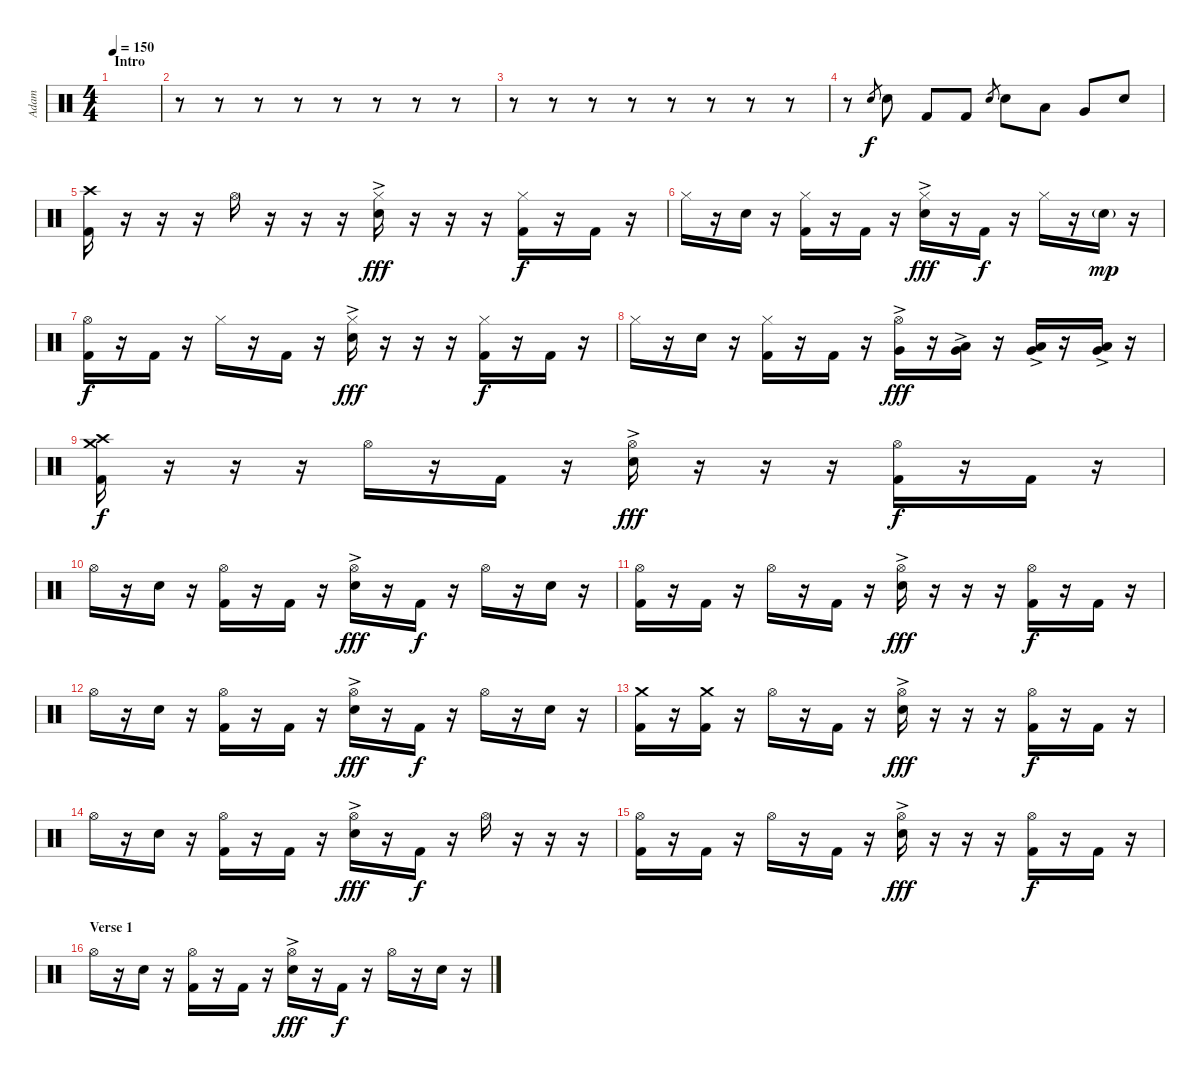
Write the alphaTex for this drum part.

\track ("Adam" "Adam") {instrument percussion}
\staff {score}
\articulation defaults
\ts (4 4)
\section ("" "Intro")
\tempo 150
\clef neutral
\ks c
|
r.8 r.8 r.8 r.8 r.8 r.8 r.8 r.8 |
r.8 r.8 r.8 r.8 r.8 r.8 r.8 r.8 |
r.8 "Electric Snare (hit)".8{gr} "Electric Snare (hit)".8 "Kick (hit) 2".8 "Kick (hit) 2".8 "Electric Snare (hit)".8{gr} "Electric Snare (hit)".8 "Low Tom (hit)".8 "Very Low Tom (hit)".8 "Electric Snare (hit)".8 |
("Crash high (hit)" "Kick (hit) 2").16 r.16 r.16 r.16 "Hi-Hat (open)".16 r.16 r.16 r.16 ("Hi-Hat (closed)" "Electric Snare (hit)"{ac}).16{dy fff} r.16 r.16 r.16 ("Hi-Hat (closed)" "Kick (hit) 2").16{dy f} r.16 "Kick (hit) 2".16 r.16 |
"Hi-Hat (closed)".16 r.16 "Electric Snare (hit)".16 r.16 ("Hi-Hat (closed)" "Kick (hit) 2").16 r.16 "Kick (hit) 2".16 r.16 ("Hi-Hat (closed)" "Electric Snare (hit)"{ac}).16{dy fff} r.16 "Kick (hit) 2".16{dy f} r.16 "Hi-Hat (closed)".16 r.16 "Electric Snare (hit)"{g}.16{dy mp} r.16 |
("Hi-Hat (open)" "Kick (hit) 2").16{dy f} r.16 "Kick (hit) 2".16 r.16 "Hi-Hat (closed)".16 r.16 "Kick (hit) 2".16 r.16 ("Hi-Hat (closed)" "Electric Snare (hit)"{ac}).16{dy fff} r.16 r.16 r.16 ("Hi-Hat (closed)" "Kick (hit) 2").16{dy f} r.16 "Kick (hit) 2".16 r.16 |
"Hi-Hat (closed)".16 r.16 "Electric Snare (hit)".16 r.16 ("Hi-Hat (closed)" "Kick (hit) 2").16 r.16 "Kick (hit) 2".16 r.16 ("Hi-Hat (open)" "Very Low Tom (hit)"{ac}).16{dy fff} r.16 ("Very Low Tom (hit)"{ac} "Low Tom (hit)").16 r.16 ("Very Low Tom (hit)"{ac} "Low Tom (hit)").16 r.16 ("Very Low Tom (hit)"{ac} "Low Tom (hit)").16 r.16 |
("Crash high (hit)" "Crash medium (hit)" "Kick (hit) 2").16{dy f} r.16 r.16 r.16 "Hi-Hat (open)".16 r.16 "Kick (hit) 2".16 r.16 ("Hi-Hat (open)" "Electric Snare (hit)"{ac}).16{dy fff} r.16 r.16 r.16 ("Hi-Hat (open)" "Kick (hit) 2").16{dy f} r.16 "Kick (hit) 2".16 r.16 |
"Hi-Hat (open)".16 r.16 "Electric Snare (hit)".16 r.16 ("Hi-Hat (open)" "Kick (hit) 2").16 r.16 "Kick (hit) 2".16 r.16 ("Hi-Hat (open)" "Electric Snare (hit)"{ac}).16{dy fff} r.16 "Kick (hit) 2".16{dy f} r.16 "Hi-Hat (open)".16 r.16 "Electric Snare (hit)".16 r.16 |
("Hi-Hat (open)" "Kick (hit) 2").16 r.16 "Kick (hit) 2".16 r.16 "Hi-Hat (open)".16 r.16 "Kick (hit) 2".16 r.16 ("Hi-Hat (open)" "Electric Snare (hit)"{ac}).16{dy fff} r.16 r.16 r.16 ("Hi-Hat (open)" "Kick (hit) 2").16{dy f} r.16 "Kick (hit) 2".16 r.16 |
"Hi-Hat (open)".16 r.16 "Electric Snare (hit)".16 r.16 ("Hi-Hat (open)" "Kick (hit) 2").16 r.16 "Kick (hit) 2".16 r.16 ("Hi-Hat (open)" "Electric Snare (hit)"{ac}).16{dy fff} r.16 "Kick (hit) 2".16{dy f} r.16 "Hi-Hat (open)".16 r.16 "Electric Snare (hit)".16 r.16 |
("Crash medium (hit)" "Kick (hit) 2").16 r.16 ("Crash medium (hit)" "Kick (hit) 2").16 r.16 "Hi-Hat (open)".16 r.16 "Kick (hit) 2".16 r.16 ("Hi-Hat (open)" "Electric Snare (hit)"{ac}).16{dy fff} r.16 r.16 r.16 ("Hi-Hat (open)" "Kick (hit) 2").16{dy f} r.16 "Kick (hit) 2".16 r.16 |
"Hi-Hat (open)".16 r.16 "Electric Snare (hit)".16 r.16 ("Hi-Hat (open)" "Kick (hit) 2").16 r.16 "Kick (hit) 2".16 r.16 ("Hi-Hat (open)" "Electric Snare (hit)"{ac}).16{dy fff} r.16 "Kick (hit) 2".16{dy f} r.16 "Hi-Hat (open)".16 r.16 r.16 r.16 |
("Hi-Hat (open)" "Kick (hit) 2").16 r.16 "Kick (hit) 2".16 r.16 "Hi-Hat (open)".16 r.16 "Kick (hit) 2".16 r.16 ("Hi-Hat (open)" "Electric Snare (hit)"{ac}).16{dy fff} r.16 r.16 r.16 ("Hi-Hat (open)" "Kick (hit) 2").16{dy f} r.16 "Kick (hit) 2".16 r.16 |
\section ("" "Verse 1")
"Hi-Hat (open)".16 r.16 "Electric Snare (hit)".16 r.16 ("Hi-Hat (open)" "Kick (hit) 2").16 r.16 "Kick (hit) 2".16 r.16 ("Hi-Hat (open)" "Electric Snare (hit)"{ac}).16{dy fff} r.16 "Kick (hit) 2".16{dy f} r.16 "Hi-Hat (open)".16 r.16 "Electric Snare (hit)".16 r.16
